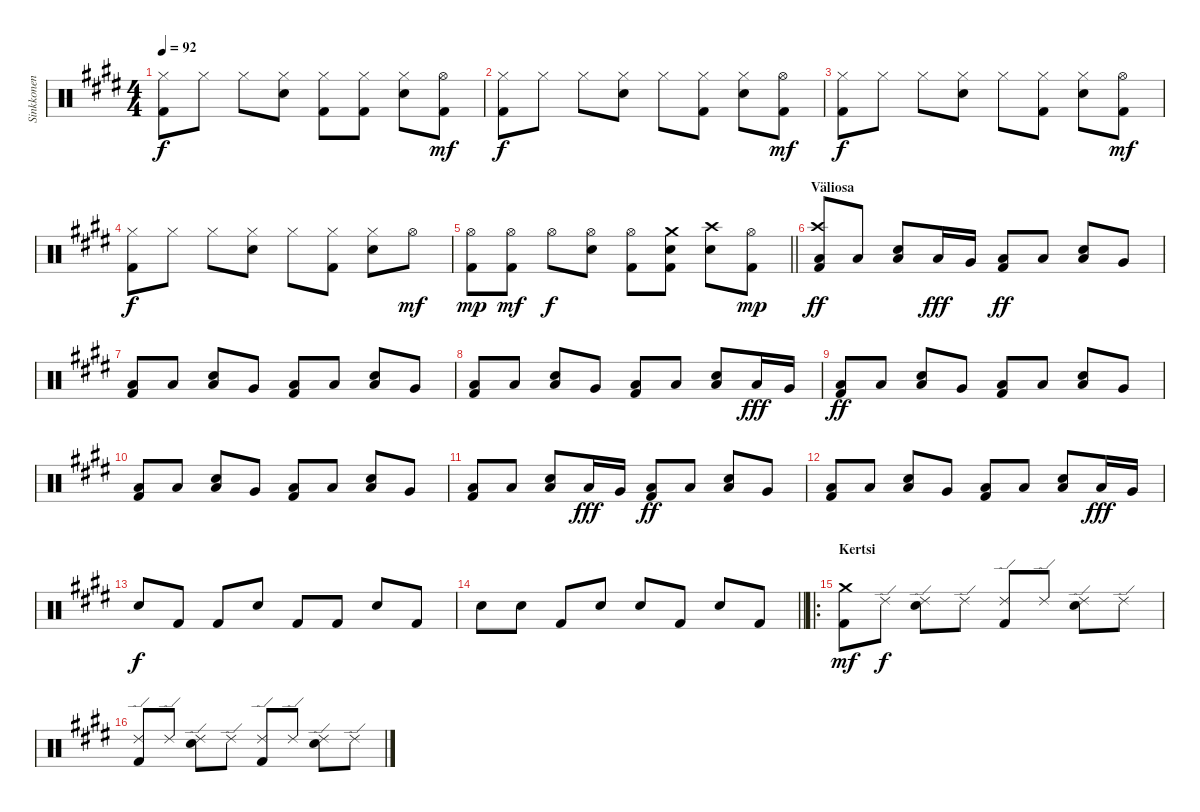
\track ("Sinkkonen" "Sinkkonen") {instrument percussion}
\staff {score}
\articulation defaults
\ts (4 4)
\tempo 92
\clef neutral
\ks c#minor
("Kick (hit) 2" "Hi-Hat (closed)").8{dy f} "Hi-Hat (closed)".8 "Hi-Hat (closed)".8 ("Hi-Hat (closed)" "Snare (hit) 2").8 ("Kick (hit) 2" "Hi-Hat (closed)").8 ("Kick (hit) 2" "Hi-Hat (closed)").8 ("Hi-Hat (closed)" "Snare (hit) 2").8 ("Kick (hit) 2" "Hi-Hat (open)").8{dy mf} |
("Kick (hit) 2" "Hi-Hat (closed)").8{dy f} "Hi-Hat (closed)".8 "Hi-Hat (closed)".8 ("Hi-Hat (closed)" "Snare (hit) 2").8 "Hi-Hat (closed)".8 ("Kick (hit) 2" "Hi-Hat (closed)").8 ("Hi-Hat (closed)" "Snare (hit) 2").8 ("Kick (hit) 2" "Hi-Hat (open)").8{dy mf} |
("Kick (hit) 2" "Hi-Hat (closed)").8{dy f} "Hi-Hat (closed)".8 "Hi-Hat (closed)".8 ("Hi-Hat (closed)" "Snare (hit) 2").8 "Hi-Hat (closed)".8 ("Kick (hit) 2" "Hi-Hat (closed)").8 ("Hi-Hat (closed)" "Snare (hit) 2").8 ("Kick (hit) 2" "Hi-Hat (open)").8{dy mf} |
("Kick (hit) 2" "Hi-Hat (closed)").8{dy f} "Hi-Hat (closed)".8 "Hi-Hat (closed)".8 ("Hi-Hat (closed)" "Snare (hit) 2").8 "Hi-Hat (closed)".8 ("Kick (hit) 2" "Hi-Hat (closed)").8 ("Hi-Hat (closed)" "Snare (hit) 2").8 "Hi-Hat (open)".8{dy mf} |
\barLineRight lightlight
("Kick (hit) 2" "Hi-Hat (open)").8{dy mp} ("Kick (hit) 2" "Hi-Hat (open)").8{dy mf} "Hi-Hat (open)".8{dy f} ("Hi-Hat (open)" "Snare (hit) 2").8 ("Kick (hit) 2" "Hi-Hat (open)").8 ("Kick (hit) 2" "Crash medium (hit)" "Snare (hit) 2").8 ("Crash high (hit)" "Snare (hit) 2").8 ("Kick (hit) 2" "Hi-Hat (open)").8{dy mp} |
\section ("" "Väliosa")
("Kick (hit) 2" "Crash high (hit)" "Low Floor Tom (hit)").8{dy ff} "Low Floor Tom (hit)".8 ("Low Floor Tom (hit)" "Snare (hit) 2").8 "Low Tom (hit)".16{dy fff} "Very Low Tom (hit)".16 ("Kick (hit) 2" "Low Floor Tom (hit)").8{dy ff} "Low Floor Tom (hit)".8 ("Low Floor Tom (hit)" "Snare (hit) 2").8 "Very Low Tom (hit)".8 |
("Kick (hit) 2" "Low Floor Tom (hit)").8 "Low Floor Tom (hit)".8 ("Low Floor Tom (hit)" "Snare (hit) 2").8 "Very Low Tom (hit)".8 ("Kick (hit) 2" "Low Floor Tom (hit)").8 "Low Floor Tom (hit)".8 ("Low Floor Tom (hit)" "Snare (hit) 2").8 "Very Low Tom (hit)".8 |
("Kick (hit) 2" "Low Floor Tom (hit)").8 "Low Floor Tom (hit)".8 ("Low Floor Tom (hit)" "Snare (hit) 2").8 "Very Low Tom (hit)".8 ("Kick (hit) 2" "Low Floor Tom (hit)").8 "Low Floor Tom (hit)".8 ("Low Floor Tom (hit)" "Snare (hit) 2").8 "Low Floor Tom (hit)".16{dy fff} "Very Low Tom (hit)".16 |
("Kick (hit) 2" "Low Floor Tom (hit)").8{dy ff} "Low Floor Tom (hit)".8 ("Low Floor Tom (hit)" "Snare (hit) 2").8 "Very Low Tom (hit)".8 ("Kick (hit) 2" "Low Floor Tom (hit)").8 "Low Floor Tom (hit)".8 ("Low Floor Tom (hit)" "Snare (hit) 2").8 "Very Low Tom (hit)".8 |
("Kick (hit) 2" "Low Floor Tom (hit)").8 "Low Floor Tom (hit)".8 ("Low Floor Tom (hit)" "Snare (hit) 2").8 "Very Low Tom (hit)".8 ("Kick (hit) 2" "Low Floor Tom (hit)").8 "Low Floor Tom (hit)".8 ("Low Floor Tom (hit)" "Snare (hit) 2").8 "Very Low Tom (hit)".8 |
("Kick (hit) 2" "Low Floor Tom (hit)").8 "Low Floor Tom (hit)".8 ("Low Floor Tom (hit)" "Snare (hit) 2").8 "Low Tom (hit)".16{dy fff} "Very Low Tom (hit)".16 ("Kick (hit) 2" "Low Floor Tom (hit)").8{dy ff} "Low Floor Tom (hit)".8 ("Low Floor Tom (hit)" "Snare (hit) 2").8 "Very Low Tom (hit)".8 |
("Kick (hit) 2" "Low Floor Tom (hit)").8 "Low Floor Tom (hit)".8 ("Low Floor Tom (hit)" "Snare (hit) 2").8 "Very Low Tom (hit)".8 ("Kick (hit) 2" "Low Floor Tom (hit)").8 "Low Floor Tom (hit)".8 ("Low Floor Tom (hit)" "Snare (hit) 2").8 "Low Floor Tom (hit)".16{dy fff} "Very Low Tom (hit)".16 |
"Snare (hit) 2".8{dy f} "Kick (hit) 2".8 "Kick (hit) 2".8 "Snare (hit) 2".8 "Kick (hit) 2".8 "Kick (hit) 2".8 "Snare (hit) 2".8 "Kick (hit) 2".8 |
\barLineRight lightlight "Snare (hit) 2".8 "Snare (hit) 2".8 "Kick (hit) 2".8 "Snare (hit) 2".8 "Snare (hit) 2".8 "Kick (hit) 2".8 "Snare (hit) 2".8 "Kick (hit) 2".8
|
\ro
\section ("" "Kertsi")
("Kick (hit) 2" "Crash medium (hit)").8{dy mf} "Ride (edge) 2".8{dy f} ("Ride (edge) 2" "Snare (hit) 2").8 "Ride (edge) 2".8 ("Kick (hit) 2" "Ride (edge) 2").8 "Ride (edge) 2".8 ("Ride (edge) 2" "Snare (hit) 2").8 "Ride (edge) 2".8 |
("Kick (hit) 2" "Ride (edge) 2").8 "Ride (edge) 2".8 ("Ride (edge) 2" "Snare (hit) 2").8 "Ride (edge) 2".8 ("Kick (hit) 2" "Ride (edge) 2").8 "Ride (edge) 2".8 ("Ride (edge) 2" "Snare (hit) 2").8 "Ride (edge) 2".8
